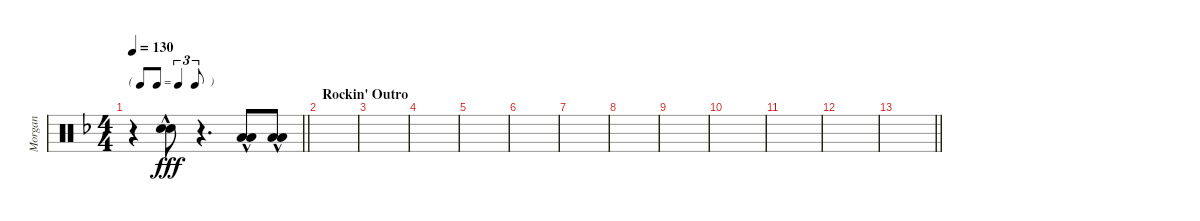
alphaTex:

\track ("Morgan" "Morgan") {instrument percussion}
\staff {score}
\articulation defaults
\ts (4 4)
\tf triplet8th
\tempo 130
\clef neutral
\barLineRight lightlight
\ks dminor
r.4{dy fff} ("Snare (hit) 2"{hac} "Snare (hit) 2"{hac}).8 r.4{d} ("Low Tom (hit)"{hac} "Low Tom (hit)"{hac}).8 ("Low Tom (hit)"{hac} "Low Tom (hit)"{hac}).8 |
\section ("" "Rockin' Outro")
|
|
|
|
|
|
|
|
|
|
|
\barLineRight lightlight
